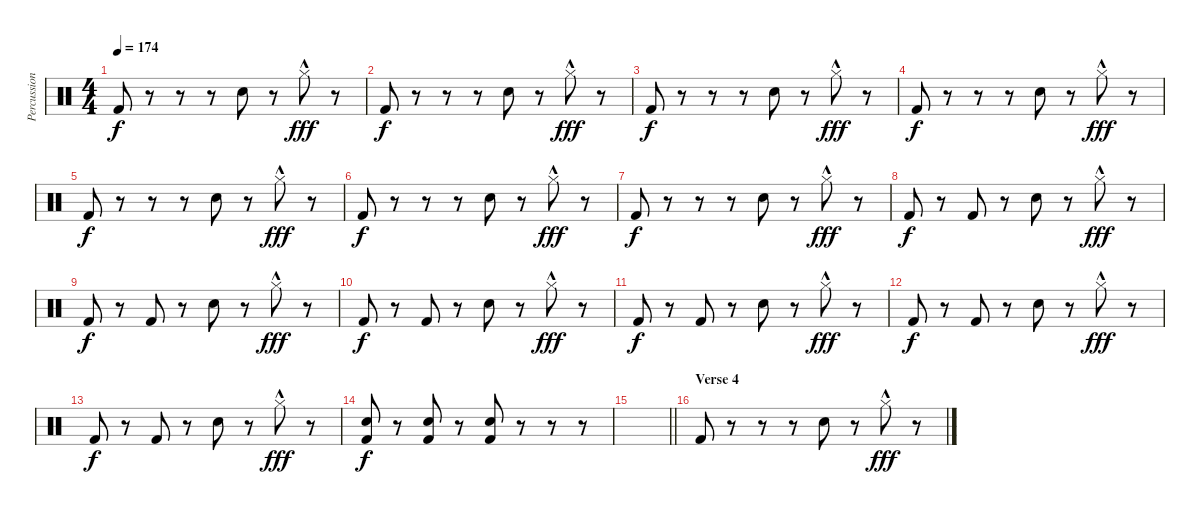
\track ("Percussion" "Percussion") {instrument percussion}
\staff {score}
\articulation defaults
\ts (4 4)
\tempo 174
\clef neutral
\ks c "Kick (hit) 2".8{dy f}
r.8 r.8 r.8 "Snare (hit) 2".8 r.8 "Hi-Hat (closed)"{hac}.8{dy fff} r.8 |
"Kick (hit) 2".8{dy f} r.8 r.8 r.8 "Snare (hit) 2".8 r.8 "Hi-Hat (closed)"{hac}.8{dy fff} r.8 |
"Kick (hit) 2".8{dy f} r.8 r.8 r.8 "Snare (hit) 2".8 r.8 "Hi-Hat (closed)"{hac}.8{dy fff} r.8 |
"Kick (hit) 2".8{dy f} r.8 r.8 r.8 "Snare (hit) 2".8 r.8 "Hi-Hat (closed)"{hac}.8{dy fff} r.8 |
"Kick (hit) 2".8{dy f} r.8 r.8 r.8 "Snare (hit) 2".8 r.8 "Hi-Hat (closed)"{hac}.8{dy fff} r.8 |
"Kick (hit) 2".8{dy f} r.8 r.8 r.8 "Snare (hit) 2".8 r.8 "Hi-Hat (closed)"{hac}.8{dy fff} r.8 |
"Kick (hit) 2".8{dy f} r.8 r.8 r.8 "Snare (hit) 2".8 r.8 "Hi-Hat (closed)"{hac}.8{dy fff} r.8 |
"Kick (hit) 2".8{dy f} r.8 "Kick (hit) 2".8 r.8 "Snare (hit) 2".8 r.8 "Hi-Hat (closed)"{hac}.8{dy fff} r.8 |
"Kick (hit) 2".8{dy f} r.8 "Kick (hit) 2".8 r.8 "Snare (hit) 2".8 r.8 "Hi-Hat (closed)"{hac}.8{dy fff} r.8 |
"Kick (hit) 2".8{dy f} r.8 "Kick (hit) 2".8 r.8 "Snare (hit) 2".8 r.8 "Hi-Hat (closed)"{hac}.8{dy fff} r.8 |
"Kick (hit) 2".8{dy f} r.8 "Kick (hit) 2".8 r.8 "Snare (hit) 2".8 r.8 "Hi-Hat (closed)"{hac}.8{dy fff} r.8 |
"Kick (hit) 2".8{dy f} r.8 "Kick (hit) 2".8 r.8 "Snare (hit) 2".8 r.8 "Hi-Hat (closed)"{hac}.8{dy fff} r.8 |
"Kick (hit) 2".8{dy f} r.8 "Kick (hit) 2".8 r.8 "Snare (hit) 2".8 r.8 "Hi-Hat (closed)"{hac}.8{dy fff} r.8 |
("Snare (hit) 2" "Kick (hit) 2").8{dy f} r.8 ("Snare (hit) 2" "Kick (hit) 2").8 r.8 ("Snare (hit) 2" "Kick (hit) 2").8 r.8 r.8 r.8 |
\barLineRight lightlight
|
\section ("" "Verse 4")
"Kick (hit) 2".8 r.8 r.8 r.8 "Snare (hit) 2".8 r.8 "Hi-Hat (closed)"{hac}.8{dy fff} r.8
